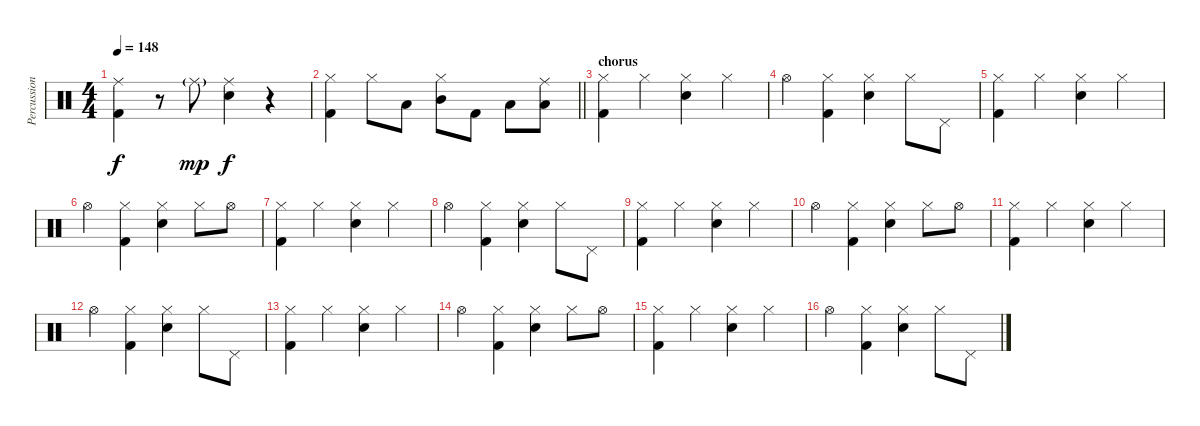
\track ("Percussions" "Percussion") {instrument percussion}
\staff {score}
\articulation defaults
\ts (4 4)
\tempo 148
\clef neutral
\ks c
("Ride (middle)" "Kick (hit) 2").4{dy f} r.8 "Ride (middle)"{g}.8{dy mp} ("Ride (middle)" "Snare (hit) 2").4{dy f} r.4 |
\barLineRight lightlight
("Kick (hit) 2" "Hi-Hat (closed)").4 "Hi-Hat (closed)".8 "Low Tom (hit)".8 ("Hi-Hat (closed)" "Mid Tom (hit)").8 "Kick (hit) 2".8 "Low Tom (hit)".8 ("Ride (middle)" "Low Floor Tom (hit)").8 |
\section ("" "chorus")
("Hi-Hat (closed)" "Kick (hit) 2").4 "Hi-Hat (closed)".4 ("Hi-Hat (closed)" "Snare (hit) 2").4 "Hi-Hat (closed)".4 |
"Hi-Hat (open)".4 ("Hi-Hat (closed)" "Kick (hit) 2").4 ("Hi-Hat (closed)" "Snare (hit) 2").4 "Hi-Hat (closed)".8 "Pedal Hi-Hat (hit)".8 |
("Hi-Hat (closed)" "Kick (hit) 2").4 "Hi-Hat (closed)".4 ("Hi-Hat (closed)" "Snare (hit) 2").4 "Hi-Hat (closed)".4 |
"Hi-Hat (open)".4 ("Hi-Hat (closed)" "Kick (hit) 2").4 ("Hi-Hat (closed)" "Snare (hit) 2").4 "Hi-Hat (closed)".8 "Hi-Hat (open)".8 |
("Hi-Hat (closed)" "Kick (hit) 2").4 "Hi-Hat (closed)".4 ("Hi-Hat (closed)" "Snare (hit) 2").4 "Hi-Hat (closed)".4 |
"Hi-Hat (open)".4 ("Hi-Hat (closed)" "Kick (hit) 2").4 ("Hi-Hat (closed)" "Snare (hit) 2").4 "Hi-Hat (closed)".8 "Pedal Hi-Hat (hit)".8 |
("Hi-Hat (closed)" "Kick (hit) 2").4 "Hi-Hat (closed)".4 ("Hi-Hat (closed)" "Snare (hit) 2").4 "Hi-Hat (closed)".4 |
"Hi-Hat (open)".4 ("Hi-Hat (closed)" "Kick (hit) 2").4 ("Hi-Hat (closed)" "Snare (hit) 2").4 "Hi-Hat (closed)".8 "Hi-Hat (open)".8 |
("Hi-Hat (closed)" "Kick (hit) 2").4 "Hi-Hat (closed)".4 ("Hi-Hat (closed)" "Snare (hit) 2").4 "Hi-Hat (closed)".4 |
"Hi-Hat (open)".4 ("Hi-Hat (closed)" "Kick (hit) 2").4 ("Hi-Hat (closed)" "Snare (hit) 2").4 "Hi-Hat (closed)".8 "Pedal Hi-Hat (hit)".8 |
("Hi-Hat (closed)" "Kick (hit) 2").4 "Hi-Hat (closed)".4 ("Hi-Hat (closed)" "Snare (hit) 2").4 "Hi-Hat (closed)".4 |
"Hi-Hat (open)".4 ("Hi-Hat (closed)" "Kick (hit) 2").4 ("Hi-Hat (closed)" "Snare (hit) 2").4 "Hi-Hat (closed)".8 "Hi-Hat (open)".8 |
("Hi-Hat (closed)" "Kick (hit) 2").4 "Hi-Hat (closed)".4 ("Hi-Hat (closed)" "Snare (hit) 2").4 "Hi-Hat (closed)".4 |
"Hi-Hat (open)".4 ("Hi-Hat (closed)" "Kick (hit) 2").4 ("Hi-Hat (closed)" "Snare (hit) 2").4 "Hi-Hat (closed)".8 "Pedal Hi-Hat (hit)".8
